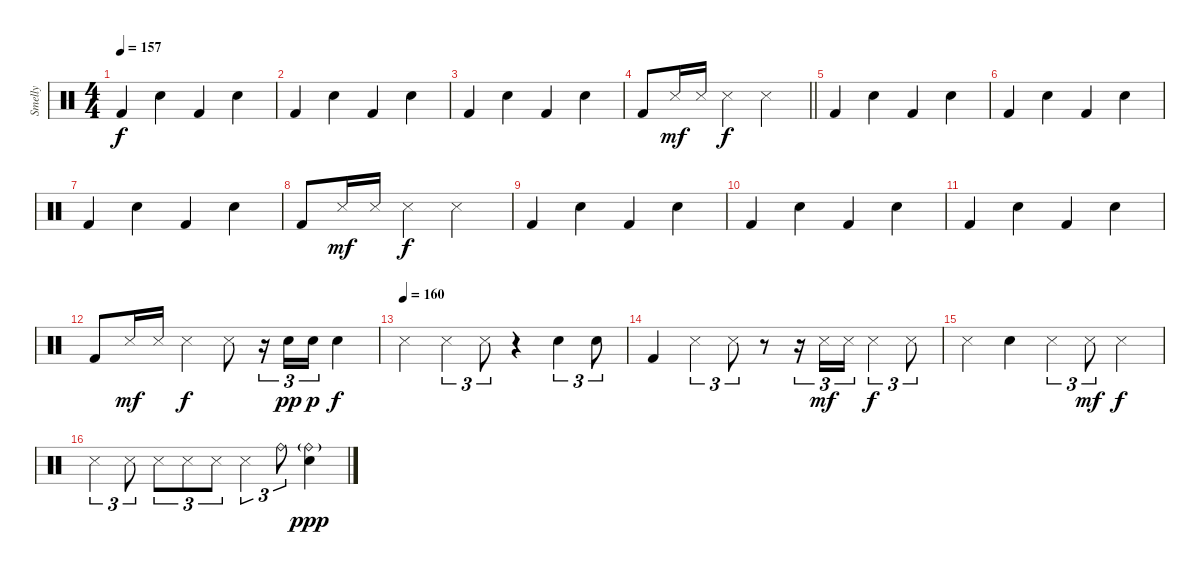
\track ("Smelly" "Smelly") {instrument percussion}
\staff {score}
\articulation defaults
\ts (4 4)
\tempo 157
\clef neutral
\ks c "Kick (hit) 2".4{dy f} "Electric Snare (hit)".4 "Kick (hit) 2".4 "Electric Snare (hit)".4
|
"Kick (hit) 2".4 "Electric Snare (hit)".4 "Kick (hit) 2".4 "Electric Snare (hit)".4 |
"Kick (hit) 2".4 "Electric Snare (hit)".4 "Kick (hit) 2".4 "Electric Snare (hit)".4 |
\barLineRight lightlight "Kick (hit) 2".8 "Snare (side stick) 3".16{dy mf} "Snare (side stick) 3".16 "Snare (side stick) 3".4{dy f} "Snare (side stick) 3".2
|
\section ("" "")
"Kick (hit) 2".4 "Electric Snare (hit)".4 "Kick (hit) 2".4 "Electric Snare (hit)".4 |
"Kick (hit) 2".4 "Electric Snare (hit)".4 "Kick (hit) 2".4 "Electric Snare (hit)".4 |
"Kick (hit) 2".4 "Electric Snare (hit)".4 "Kick (hit) 2".4 "Electric Snare (hit)".4 |
"Kick (hit) 2".8 "Snare (side stick) 3".16{dy mf} "Snare (side stick) 3".16 "Snare (side stick) 3".4{dy f} "Snare (side stick) 3".2 |
"Kick (hit) 2".4 "Electric Snare (hit)".4 "Kick (hit) 2".4 "Electric Snare (hit)".4 |
"Kick (hit) 2".4 "Electric Snare (hit)".4 "Kick (hit) 2".4 "Electric Snare (hit)".4 |
"Kick (hit) 2".4 "Electric Snare (hit)".4 "Kick (hit) 2".4 "Electric Snare (hit)".4 |
"Kick (hit) 2".8 "Snare (side stick) 3".16{dy mf} "Snare (side stick) 3".16 "Snare (side stick) 3".4{dy f} "Snare (side stick) 3".8 r.16{tu (3 2)} "Electric Snare (hit)".16{tu (3 2) dy pp} "Electric Snare (hit)".16{tu (3 2) dy p} "Electric Snare (hit)".4{dy f} |
\tempo (160)
"Snare (side stick) 3".4 "Snare (side stick) 3".4{tu (3 2)} "Snare (side stick) 3".8{tu (3 2)} r.4 "Electric Snare (hit)".4{tu (3 2)} "Electric Snare (hit)".8{tu (3 2)} |
"Kick (hit) 2".4 "Snare (side stick) 3".4{tu (3 2)} "Snare (side stick) 3".8{tu (3 2)} r.8 r.16{tu (3 2)} "Snare (side stick) 3".16{tu (3 2) dy mf} "Snare (side stick) 3".16{tu (3 2)} "Snare (side stick) 3".4{tu (3 2) dy f} "Snare (side stick) 3".8{tu (3 2)} |
"Snare (side stick) 3".4 "Electric Snare (hit)".4 "Snare (side stick) 3".4{tu (3 2)} "Snare (side stick) 3".8{tu (3 2) dy mf} "Snare (side stick) 3".4{dy f} |
"Snare (side stick) 3".4{tu (3 2)} "Snare (side stick) 3".8{tu (3 2)} "Snare (side stick) 3".8{tu (3 2)} "Snare (side stick) 3".8{tu (3 2)} "Snare (side stick) 3".8{tu (3 2)} "Snare (side stick) 3".4{tu (3 2)} "Ride (bell)".8{tu (3 2)} ("Ride (bell)"{g} "Electric Snare (hit)").4{dy ppp}
